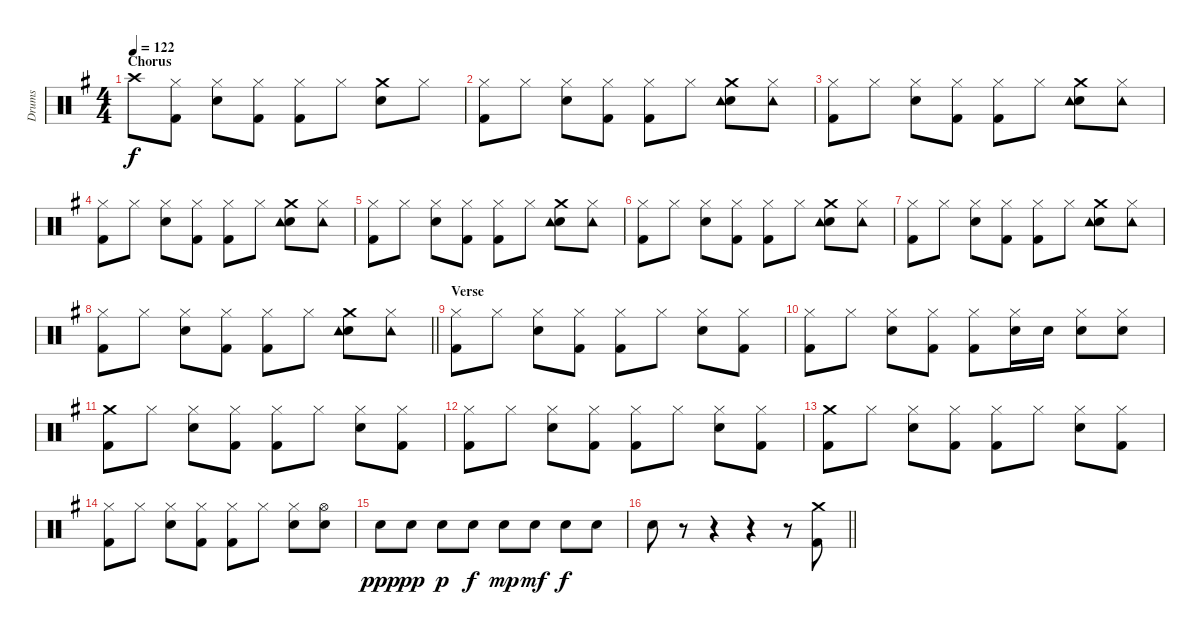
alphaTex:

\track ("Drums" "Drums") {instrument percussion}
\staff {score}
\articulation defaults
\ts (4 4)
\section ("" "Chorus")
\tempo 122
\clef neutral
\ks g "Crash high (hit)"{t}.8{dy f}
("Hi-Hat (closed)" "Kick (hit) 2").8 ("Hi-Hat (closed)" "Electric Snare (hit)").8 ("Hi-Hat (closed)" "Kick (hit) 2").8 ("Hi-Hat (closed)" "Kick (hit) 2").8 "Hi-Hat (closed)".8 ("Crash medium (hit)" "Electric Snare (hit)").8 "Hi-Hat (closed)".8 |
("Hi-Hat (closed)" "Kick (hit) 2").8 "Hi-Hat (closed)".8 ("Hi-Hat (closed)" "Electric Snare (hit)").8 ("Hi-Hat (closed)" "Kick (hit) 2").8 ("Hi-Hat (closed)" "Kick (hit) 2").8 "Hi-Hat (closed)".8 ("Crash medium (hit)" "Electric Snare (hit)" "Tambourine (hit)").8 ("Hi-Hat (closed)" "Tambourine (hit)").8 |
("Hi-Hat (closed)" "Kick (hit) 2").8 "Hi-Hat (closed)".8 ("Hi-Hat (closed)" "Electric Snare (hit)").8 ("Hi-Hat (closed)" "Kick (hit) 2").8 ("Hi-Hat (closed)" "Kick (hit) 2").8 "Hi-Hat (closed)".8 ("Crash medium (hit)" "Electric Snare (hit)" "Tambourine (hit)").8 ("Hi-Hat (closed)" "Tambourine (hit)").8 |
("Hi-Hat (closed)" "Kick (hit) 2").8 "Hi-Hat (closed)".8 ("Hi-Hat (closed)" "Electric Snare (hit)").8 ("Hi-Hat (closed)" "Kick (hit) 2").8 ("Hi-Hat (closed)" "Kick (hit) 2").8 "Hi-Hat (closed)".8 ("Crash medium (hit)" "Electric Snare (hit)" "Tambourine (hit)").8 ("Hi-Hat (closed)" "Tambourine (hit)").8 |
("Hi-Hat (closed)" "Kick (hit) 2").8 "Hi-Hat (closed)".8 ("Hi-Hat (closed)" "Electric Snare (hit)").8 ("Hi-Hat (closed)" "Kick (hit) 2").8 ("Hi-Hat (closed)" "Kick (hit) 2").8 "Hi-Hat (closed)".8 ("Crash medium (hit)" "Electric Snare (hit)" "Tambourine (hit)").8 ("Hi-Hat (closed)" "Tambourine (hit)").8 |
("Hi-Hat (closed)" "Kick (hit) 2").8 "Hi-Hat (closed)".8 ("Hi-Hat (closed)" "Electric Snare (hit)").8 ("Hi-Hat (closed)" "Kick (hit) 2").8 ("Hi-Hat (closed)" "Kick (hit) 2").8 "Hi-Hat (closed)".8 ("Crash medium (hit)" "Electric Snare (hit)" "Tambourine (hit)").8 ("Hi-Hat (closed)" "Tambourine (hit)").8 |
("Hi-Hat (closed)" "Kick (hit) 2").8 "Hi-Hat (closed)".8 ("Hi-Hat (closed)" "Electric Snare (hit)").8 ("Hi-Hat (closed)" "Kick (hit) 2").8 ("Hi-Hat (closed)" "Kick (hit) 2").8 "Hi-Hat (closed)".8 ("Crash medium (hit)" "Electric Snare (hit)" "Tambourine (hit)").8 ("Hi-Hat (closed)" "Tambourine (hit)").8 |
\barLineRight lightlight
("Hi-Hat (closed)" "Kick (hit) 2").8 "Hi-Hat (closed)".8 ("Hi-Hat (closed)" "Electric Snare (hit)").8 ("Hi-Hat (closed)" "Kick (hit) 2").8 ("Hi-Hat (closed)" "Kick (hit) 2").8 "Hi-Hat (closed)".8 ("Crash medium (hit)" "Electric Snare (hit)" "Tambourine (hit)").8 ("Hi-Hat (closed)" "Tambourine (hit)").8 |
\section ("" "Verse")
("Hi-Hat (closed)" "Kick (hit) 2").8 "Hi-Hat (closed)".8 ("Hi-Hat (closed)" "Electric Snare (hit)").8 ("Hi-Hat (closed)" "Kick (hit) 2").8 ("Hi-Hat (closed)" "Kick (hit) 2").8 "Hi-Hat (closed)".8 ("Hi-Hat (closed)" "Electric Snare (hit)").8 ("Hi-Hat (closed)" "Kick (hit) 2").8 |
("Hi-Hat (closed)" "Kick (hit) 2").8 "Hi-Hat (closed)".8 ("Hi-Hat (closed)" "Electric Snare (hit)").8 ("Hi-Hat (closed)" "Kick (hit) 2").8 ("Hi-Hat (closed)" "Kick (hit) 2").8 ("Hi-Hat (closed)" "Electric Snare (hit)").16 "Electric Snare (hit)".16 ("Hi-Hat (closed)" "Electric Snare (hit)").8 ("Hi-Hat (closed)" "Electric Snare (hit)").8 |
("Crash medium (hit)" "Kick (hit) 2").8 "Hi-Hat (closed)".8 ("Hi-Hat (closed)" "Electric Snare (hit)").8 ("Hi-Hat (closed)" "Kick (hit) 2").8 ("Hi-Hat (closed)" "Kick (hit) 2").8 "Hi-Hat (closed)".8 ("Hi-Hat (closed)" "Electric Snare (hit)").8 ("Hi-Hat (closed)" "Kick (hit) 2").8 |
("Hi-Hat (closed)" "Kick (hit) 2").8 "Hi-Hat (closed)".8 ("Hi-Hat (closed)" "Electric Snare (hit)").8 ("Hi-Hat (closed)" "Kick (hit) 2").8 ("Hi-Hat (closed)" "Kick (hit) 2").8 "Hi-Hat (closed)".8 ("Hi-Hat (closed)" "Electric Snare (hit)").8 ("Hi-Hat (closed)" "Kick (hit) 2").8 |
("Crash medium (hit)" "Kick (hit) 2").8 "Hi-Hat (closed)".8 ("Hi-Hat (closed)" "Electric Snare (hit)").8 ("Hi-Hat (closed)" "Kick (hit) 2").8 ("Hi-Hat (closed)" "Kick (hit) 2").8 "Hi-Hat (closed)".8 ("Hi-Hat (closed)" "Electric Snare (hit)").8 ("Hi-Hat (closed)" "Kick (hit) 2").8 |
("Hi-Hat (closed)" "Kick (hit) 2").8 "Hi-Hat (closed)".8 ("Hi-Hat (closed)" "Electric Snare (hit)").8 ("Hi-Hat (closed)" "Kick (hit) 2").8 ("Hi-Hat (closed)" "Kick (hit) 2").8 "Hi-Hat (closed)".8 ("Hi-Hat (closed)" "Electric Snare (hit)").8 ("Hi-Hat (open)" "Electric Snare (hit)").8 |
"Electric Snare (hit)".8{dy ppp} "Electric Snare (hit)".8{dy pp} "Electric Snare (hit)".8{dy p} "Electric Snare (hit)".8{dy f} "Electric Snare (hit)".8{dy mp} "Electric Snare (hit)".8{dy mf} "Electric Snare (hit)".8{dy f} "Electric Snare (hit)".8 |
\barLineRight lightlight "Electric Snare (hit)".8
r.8 r.4 r.4 r.8 ("Crash medium (hit)" "Kick (hit) 2").8
